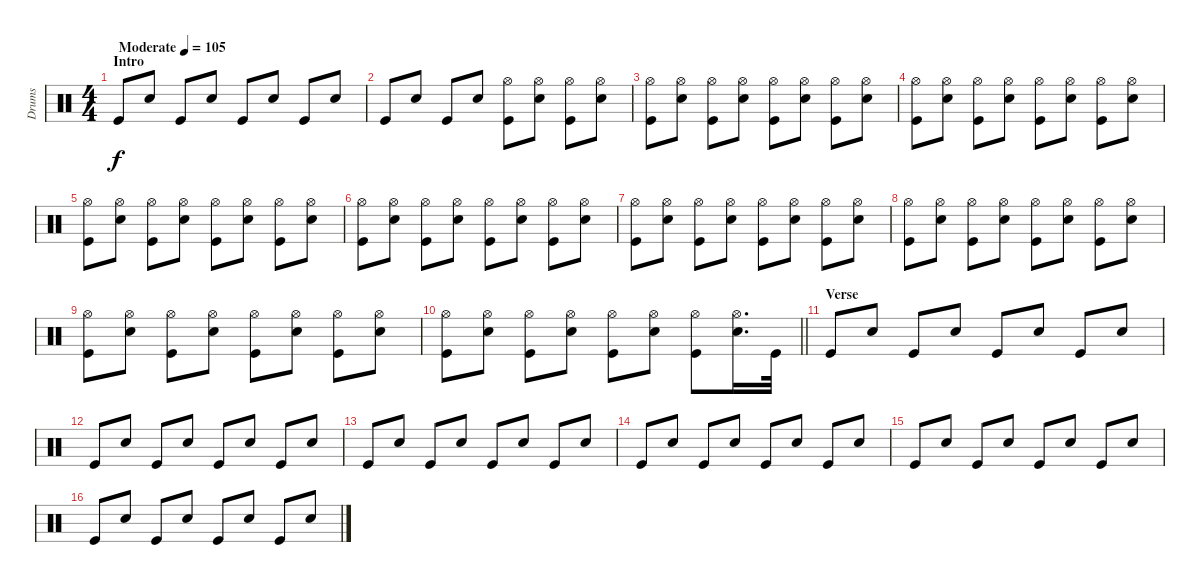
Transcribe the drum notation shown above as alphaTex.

\track ("Drums" "Drums") {instrument percussion}
\staff
\articulation defaults
\ts (4 4)
\section ("" "Intro")
\tempo (105 "Moderate")
\clef neutral
\ks c "Kick (hit)".8{dy f} "Snare (hit) 2".8 "Kick (hit)".8 "Snare (hit) 2".8 "Kick (hit)".8 "Snare (hit) 2".8 "Kick (hit)".8 "Snare (hit) 2".8
|
"Kick (hit)".8 "Snare (hit) 2".8 "Kick (hit)".8 "Snare (hit) 2".8 ("Hi-Hat (open)" "Kick (hit)").8 ("Hi-Hat (open)" "Snare (hit) 2").8 ("Hi-Hat (open)" "Kick (hit)").8 ("Hi-Hat (open)" "Snare (hit) 2").8 |
("Hi-Hat (open)" "Kick (hit)").8 ("Hi-Hat (open)" "Snare (hit) 2").8 ("Hi-Hat (open)" "Kick (hit)").8 ("Hi-Hat (open)" "Snare (hit) 2").8 ("Hi-Hat (open)" "Kick (hit)").8 ("Hi-Hat (open)" "Snare (hit) 2").8 ("Hi-Hat (open)" "Kick (hit)").8 ("Hi-Hat (open)" "Snare (hit) 2").8 |
("Hi-Hat (open)" "Kick (hit)").8 ("Hi-Hat (open)" "Snare (hit) 2").8 ("Hi-Hat (open)" "Kick (hit)").8 ("Hi-Hat (open)" "Snare (hit) 2").8 ("Hi-Hat (open)" "Kick (hit)").8 ("Hi-Hat (open)" "Snare (hit) 2").8 ("Hi-Hat (open)" "Kick (hit)").8 ("Hi-Hat (open)" "Snare (hit) 2").8 |
("Hi-Hat (open)" "Kick (hit)").8 ("Hi-Hat (open)" "Snare (hit) 2").8 ("Hi-Hat (open)" "Kick (hit)").8 ("Hi-Hat (open)" "Snare (hit) 2").8 ("Hi-Hat (open)" "Kick (hit)").8 ("Hi-Hat (open)" "Snare (hit) 2").8 ("Hi-Hat (open)" "Kick (hit)").8 ("Hi-Hat (open)" "Snare (hit) 2").8 |
("Hi-Hat (open)" "Kick (hit)").8 ("Hi-Hat (open)" "Snare (hit) 2").8 ("Hi-Hat (open)" "Kick (hit)").8 ("Hi-Hat (open)" "Snare (hit) 2").8 ("Hi-Hat (open)" "Kick (hit)").8 ("Hi-Hat (open)" "Snare (hit) 2").8 ("Hi-Hat (open)" "Kick (hit)").8 ("Hi-Hat (open)" "Snare (hit) 2").8 |
("Hi-Hat (open)" "Kick (hit)").8 ("Hi-Hat (open)" "Snare (hit) 2").8 ("Hi-Hat (open)" "Kick (hit)").8 ("Hi-Hat (open)" "Snare (hit) 2").8 ("Hi-Hat (open)" "Kick (hit)").8 ("Hi-Hat (open)" "Snare (hit) 2").8 ("Hi-Hat (open)" "Kick (hit)").8 ("Hi-Hat (open)" "Snare (hit) 2").8 |
("Hi-Hat (open)" "Kick (hit)").8 ("Hi-Hat (open)" "Snare (hit) 2").8 ("Hi-Hat (open)" "Kick (hit)").8 ("Hi-Hat (open)" "Snare (hit) 2").8 ("Hi-Hat (open)" "Kick (hit)").8 ("Hi-Hat (open)" "Snare (hit) 2").8 ("Hi-Hat (open)" "Kick (hit)").8 ("Hi-Hat (open)" "Snare (hit) 2").8 |
("Hi-Hat (open)" "Kick (hit)").8 ("Hi-Hat (open)" "Snare (hit) 2").8 ("Hi-Hat (open)" "Kick (hit)").8 ("Hi-Hat (open)" "Snare (hit) 2").8 ("Hi-Hat (open)" "Kick (hit)").8 ("Hi-Hat (open)" "Snare (hit) 2").8 ("Hi-Hat (open)" "Kick (hit)").8 ("Hi-Hat (open)" "Snare (hit) 2").8 |
\barLineRight lightlight
("Hi-Hat (open)" "Kick (hit)").8 ("Hi-Hat (open)" "Snare (hit) 2").8 ("Hi-Hat (open)" "Kick (hit)").8 ("Hi-Hat (open)" "Snare (hit) 2").8 ("Hi-Hat (open)" "Kick (hit)").8 ("Hi-Hat (open)" "Snare (hit) 2").8 ("Hi-Hat (open)" "Kick (hit)").8 ("Hi-Hat (open)" "Snare (hit) 2").16{d} "Kick (hit)".32 |
\section ("" "Verse")
"Kick (hit)".8 "Snare (hit) 2".8 "Kick (hit)".8 "Snare (hit) 2".8 "Kick (hit)".8 "Snare (hit) 2".8 "Kick (hit)".8 "Snare (hit) 2".8 |
"Kick (hit)".8 "Snare (hit) 2".8 "Kick (hit)".8 "Snare (hit) 2".8 "Kick (hit)".8 "Snare (hit) 2".8 "Kick (hit)".8 "Snare (hit) 2".8 |
"Kick (hit)".8 "Snare (hit) 2".8 "Kick (hit)".8 "Snare (hit) 2".8 "Kick (hit)".8 "Snare (hit) 2".8 "Kick (hit)".8 "Snare (hit) 2".8 |
"Kick (hit)".8 "Snare (hit) 2".8 "Kick (hit)".8 "Snare (hit) 2".8 "Kick (hit)".8 "Snare (hit) 2".8 "Kick (hit)".8 "Snare (hit) 2".8 |
"Kick (hit)".8 "Snare (hit) 2".8 "Kick (hit)".8 "Snare (hit) 2".8 "Kick (hit)".8 "Snare (hit) 2".8 "Kick (hit)".8 "Snare (hit) 2".8 |
"Kick (hit)".8 "Snare (hit) 2".8 "Kick (hit)".8 "Snare (hit) 2".8 "Kick (hit)".8 "Snare (hit) 2".8 "Kick (hit)".8 "Snare (hit) 2".8
